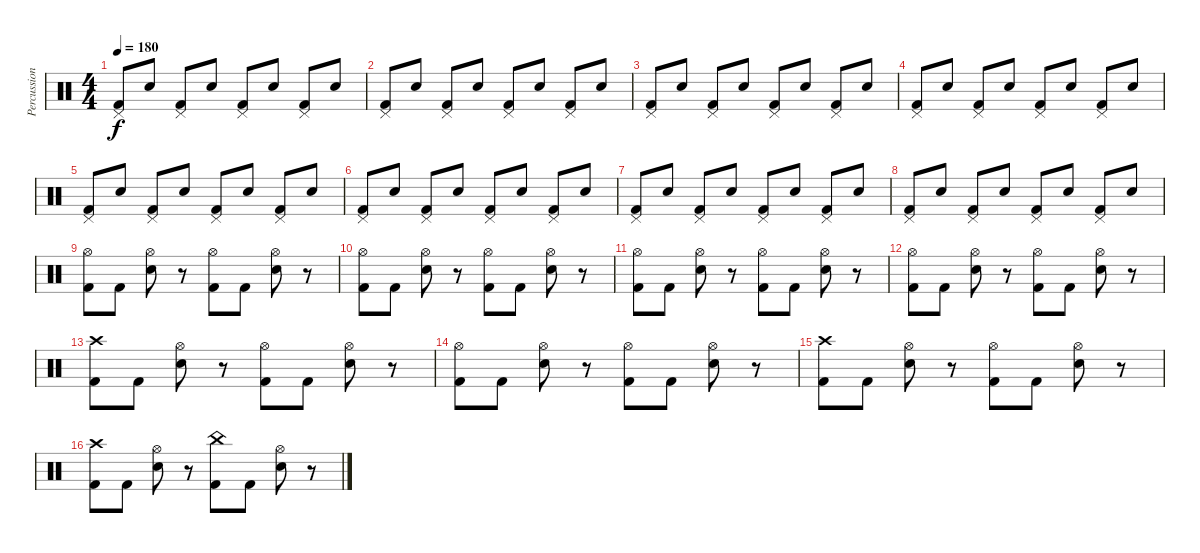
\track ("Percussion" "Percussion") {instrument percussion}
\staff {score}
\articulation defaults
\ts (4 4)
\tempo 180
\clef neutral
\ks c
("Pedal Hi-Hat (hit)" "Kick (hit) 2").8{dy f} "Snare (hit) 2".8 ("Pedal Hi-Hat (hit)" "Kick (hit) 2").8 "Snare (hit) 2".8 ("Pedal Hi-Hat (hit)" "Kick (hit) 2").8 "Snare (hit) 2".8 ("Pedal Hi-Hat (hit)" "Kick (hit) 2").8 "Snare (hit) 2".8 |
("Pedal Hi-Hat (hit)" "Kick (hit) 2").8 "Snare (hit) 2".8 ("Pedal Hi-Hat (hit)" "Kick (hit) 2").8 "Snare (hit) 2".8 ("Pedal Hi-Hat (hit)" "Kick (hit) 2").8 "Snare (hit) 2".8 ("Pedal Hi-Hat (hit)" "Kick (hit) 2").8 "Snare (hit) 2".8 |
("Pedal Hi-Hat (hit)" "Kick (hit) 2").8 "Snare (hit) 2".8 ("Pedal Hi-Hat (hit)" "Kick (hit) 2").8 "Snare (hit) 2".8 ("Pedal Hi-Hat (hit)" "Kick (hit) 2").8 "Snare (hit) 2".8 ("Pedal Hi-Hat (hit)" "Kick (hit) 2").8 "Snare (hit) 2".8 |
("Pedal Hi-Hat (hit)" "Kick (hit) 2").8 "Snare (hit) 2".8 ("Pedal Hi-Hat (hit)" "Kick (hit) 2").8 "Snare (hit) 2".8 ("Pedal Hi-Hat (hit)" "Kick (hit) 2").8 "Snare (hit) 2".8 ("Pedal Hi-Hat (hit)" "Kick (hit) 2").8 "Snare (hit) 2".8 |
("Pedal Hi-Hat (hit)" "Kick (hit) 2").8 "Snare (hit) 2".8 ("Pedal Hi-Hat (hit)" "Kick (hit) 2").8 "Snare (hit) 2".8 ("Pedal Hi-Hat (hit)" "Kick (hit) 2").8 "Snare (hit) 2".8 ("Pedal Hi-Hat (hit)" "Kick (hit) 2").8 "Snare (hit) 2".8 |
("Pedal Hi-Hat (hit)" "Kick (hit) 2").8 "Snare (hit) 2".8 ("Pedal Hi-Hat (hit)" "Kick (hit) 2").8 "Snare (hit) 2".8 ("Pedal Hi-Hat (hit)" "Kick (hit) 2").8 "Snare (hit) 2".8 ("Pedal Hi-Hat (hit)" "Kick (hit) 2").8 "Snare (hit) 2".8 |
("Pedal Hi-Hat (hit)" "Kick (hit) 2").8 "Snare (hit) 2".8 ("Pedal Hi-Hat (hit)" "Kick (hit) 2").8 "Snare (hit) 2".8 ("Pedal Hi-Hat (hit)" "Kick (hit) 2").8 "Snare (hit) 2".8 ("Pedal Hi-Hat (hit)" "Kick (hit) 2").8 "Snare (hit) 2".8 |
("Pedal Hi-Hat (hit)" "Kick (hit) 2").8 "Snare (hit) 2".8 ("Pedal Hi-Hat (hit)" "Kick (hit) 2").8 "Snare (hit) 2".8 ("Pedal Hi-Hat (hit)" "Kick (hit) 2").8 "Snare (hit) 2".8 ("Pedal Hi-Hat (hit)" "Kick (hit) 2").8 "Snare (hit) 2".8 |
("Hi-Hat (open)" "Kick (hit) 2").8 "Kick (hit) 2".8 ("Hi-Hat (open)" "Snare (hit) 2").8 r.8 ("Hi-Hat (open)" "Kick (hit) 2").8 "Kick (hit) 2".8 ("Hi-Hat (open)" "Snare (hit) 2").8 r.8 |
("Hi-Hat (open)" "Kick (hit) 2").8 "Kick (hit) 2".8 ("Hi-Hat (open)" "Snare (hit) 2").8 r.8 ("Hi-Hat (open)" "Kick (hit) 2").8 "Kick (hit) 2".8 ("Hi-Hat (open)" "Snare (hit) 2").8 r.8 |
("Hi-Hat (open)" "Kick (hit) 2").8 "Kick (hit) 2".8 ("Hi-Hat (open)" "Snare (hit) 2").8 r.8 ("Hi-Hat (open)" "Kick (hit) 2").8 "Kick (hit) 2".8 ("Hi-Hat (open)" "Snare (hit) 2").8 r.8 |
("Hi-Hat (open)" "Kick (hit) 2").8 "Kick (hit) 2".8 ("Hi-Hat (open)" "Snare (hit) 2").8 r.8 ("Hi-Hat (open)" "Kick (hit) 2").8 "Kick (hit) 2".8 ("Hi-Hat (open)" "Snare (hit) 2").8 r.8 |
("Crash high (hit)" "Kick (hit) 2").8 "Kick (hit) 2".8 ("Hi-Hat (open)" "Snare (hit) 2").8 r.8 ("Hi-Hat (open)" "Kick (hit) 2").8 "Kick (hit) 2".8 ("Hi-Hat (open)" "Snare (hit) 2").8 r.8 |
("Hi-Hat (open)" "Kick (hit) 2").8 "Kick (hit) 2".8 ("Hi-Hat (open)" "Snare (hit) 2").8 r.8 ("Hi-Hat (open)" "Kick (hit) 2").8 "Kick (hit) 2".8 ("Hi-Hat (open)" "Snare (hit) 2").8 r.8 |
("Crash high (hit)" "Kick (hit) 2").8 "Kick (hit) 2".8 ("Hi-Hat (open)" "Snare (hit) 2").8 r.8 ("Hi-Hat (open)" "Kick (hit) 2").8 "Kick (hit) 2".8 ("Hi-Hat (open)" "Snare (hit) 2").8 r.8 |
("Crash high (hit)" "Kick (hit) 2").8 "Kick (hit) 2".8 ("Hi-Hat (open)" "Snare (hit) 2").8 r.8 ("China (hit)" "Kick (hit) 2").8 "Kick (hit) 2".8 ("Hi-Hat (open)" "Snare (hit) 2").8 r.8
